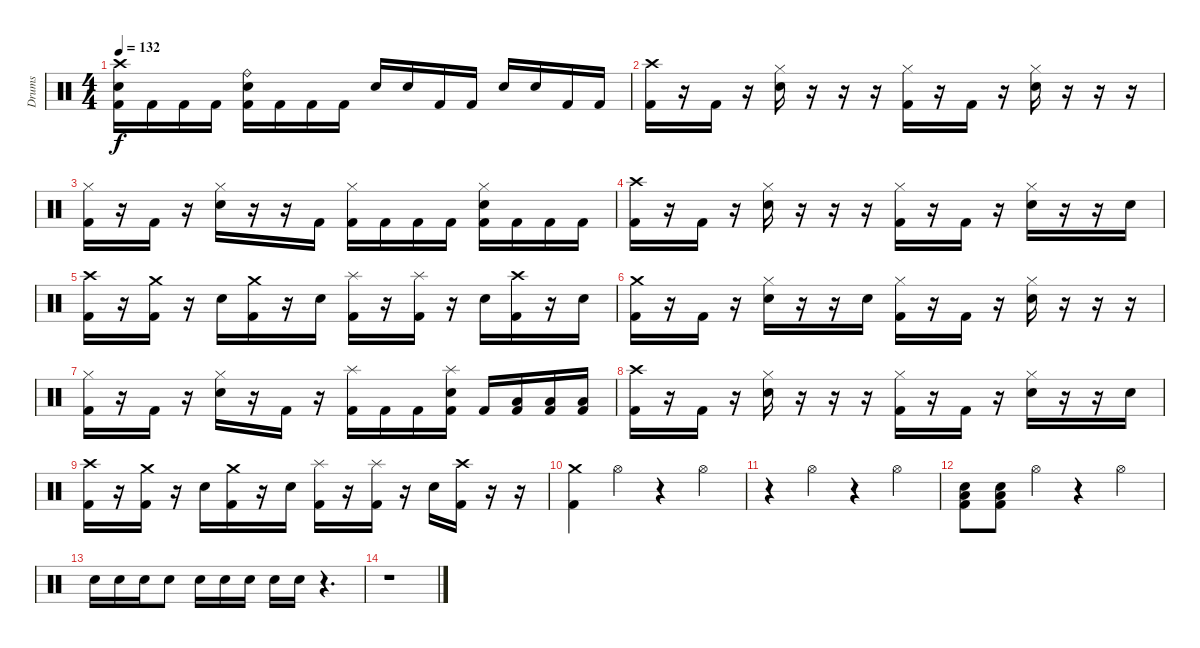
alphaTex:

\track ("Drums" "Drums") {instrument percussion}
\staff {score}
\articulation defaults
\ts (4 4)
\tempo 132
\clef neutral
\ks c
("Crash high (hit)" "Electric Snare (hit)" "Kick (hit) 2").16{dy f} "Kick (hit) 2".16 "Kick (hit) 2".16 "Kick (hit) 2".16 ("Ride (bell)" "Electric Snare (hit)" "Kick (hit) 2").16 "Kick (hit) 2".16 "Kick (hit) 2".16 "Kick (hit) 2".16 "Electric Snare (hit)".16 "Electric Snare (hit)".16 "Kick (hit) 2".16 "Kick (hit) 2".16 "Electric Snare (hit)".16 "Electric Snare (hit)".16 "Kick (hit) 2".16 "Kick (hit) 2".16 |
("Crash high (hit)" "Kick (hit) 2").16 r.16 "Kick (hit) 2".16 r.16 ("Hi-Hat (closed)" "Electric Snare (hit)").16 r.16 r.16 r.16 ("Hi-Hat (closed)" "Kick (hit) 2").16 r.16 "Kick (hit) 2".16 r.16 ("Hi-Hat (closed)" "Electric Snare (hit)").16 r.16 r.16 r.16 |
("Hi-Hat (closed)" "Kick (hit) 2").16 r.16 "Kick (hit) 2".16 r.16 ("Hi-Hat (closed)" "Electric Snare (hit)").16 r.16 r.16 "Kick (hit) 2".16 ("Hi-Hat (closed)" "Kick (hit) 2").16 "Kick (hit) 2".16 "Kick (hit) 2".16 "Kick (hit) 2".16 ("Hi-Hat (closed)" "Electric Snare (hit)" "Kick (hit) 2").16 "Kick (hit) 2".16 "Kick (hit) 2".16 "Kick (hit) 2".16 |
("Crash high (hit)" "Kick (hit) 2").16 r.16 "Kick (hit) 2".16 r.16 ("Hi-Hat (closed)" "Electric Snare (hit)").16 r.16 r.16 r.16 ("Hi-Hat (closed)" "Kick (hit) 2").16 r.16 "Kick (hit) 2".16 r.16 ("Hi-Hat (closed)" "Electric Snare (hit)").16 r.16 r.16 "Electric Snare (hit)".16 |
("Crash high (hit)" "Kick (hit) 2").16 r.16 ("Crash medium (hit)" "Kick (hit) 2").16 r.16 "Electric Snare (hit)".16 ("Crash medium (hit)" "Kick (hit) 2").16 r.16 "Electric Snare (hit)".16 ("Splash (hit)" "Kick (hit) 2").16 r.16 ("Splash (hit)" "Kick (hit) 2").16 r.16 "Electric Snare (hit)".16 ("Crash high (hit)" "Kick (hit) 2").16 r.16 "Electric Snare (hit)".16 |
("Crash medium (hit)" "Kick (hit) 2").16 r.16 "Kick (hit) 2".16 r.16 ("Hi-Hat (closed)" "Electric Snare (hit)").16 r.16 r.16 "Electric Snare (hit)".16 ("Hi-Hat (closed)" "Kick (hit) 2").16 r.16 "Kick (hit) 2".16 r.16 ("Hi-Hat (closed)" "Electric Snare (hit)").16 r.16 r.16 r.16 |
("Hi-Hat (closed)" "Kick (hit) 2").16 r.16 "Kick (hit) 2".16 r.16 ("Hi-Hat (closed)" "Electric Snare (hit)").16 r.16 "Kick (hit) 2".16 r.16 ("Splash (hit)" "Kick (hit) 2").16 "Kick (hit) 2".16 "Kick (hit) 2".16 ("Splash (hit)" "Electric Snare (hit)" "Kick (hit) 2").16 "Kick (hit) 2".16 ("Low Tom (hit)" "Kick (hit) 2").16 ("Low Tom (hit)" "Kick (hit) 2").16 ("Low Tom (hit)" "Kick (hit) 2").16 |
("Crash high (hit)" "Kick (hit) 2").16 r.16 "Kick (hit) 2".16 r.16 ("Hi-Hat (closed)" "Electric Snare (hit)").16 r.16 r.16 r.16 ("Hi-Hat (closed)" "Kick (hit) 2").16 r.16 "Kick (hit) 2".16 r.16 ("Hi-Hat (closed)" "Electric Snare (hit)").16 r.16 r.16 "Electric Snare (hit)".16 |
("Crash high (hit)" "Kick (hit) 2").16 r.16 ("Crash medium (hit)" "Kick (hit) 2").16 r.16 "Electric Snare (hit)".16 ("Crash medium (hit)" "Kick (hit) 2").16 r.16 "Electric Snare (hit)".16 ("Splash (hit)" "Kick (hit) 2").16 r.16 ("Splash (hit)" "Kick (hit) 2").16 r.16 "Electric Snare (hit)".16 ("Crash high (hit)" "Kick (hit) 2").16 r.16 r.16 |
("Crash medium (hit)" "Kick (hit) 2").4 "Hi-Hat (open)".4 r.4 "Hi-Hat (open)".4 |
r.4 "Hi-Hat (open)".4 r.4 "Hi-Hat (open)".4 |
("Low Floor Tom (hit)" "Electric Snare (hit)" "Kick (hit) 2").8 ("Low Floor Tom (hit)" "Electric Snare (hit)" "Kick (hit) 2").8 "Hi-Hat (open)".4 r.4 "Hi-Hat (open)".4 |
"Electric Snare (hit)".16 "Electric Snare (hit)".16 "Electric Snare (hit)".16 "Electric Snare (hit)".8 "Electric Snare (hit)".16 "Electric Snare (hit)".16 "Electric Snare (hit)".16 "Electric Snare (hit)".16 "Electric Snare (hit)".16 r.4{d} |
r.1
